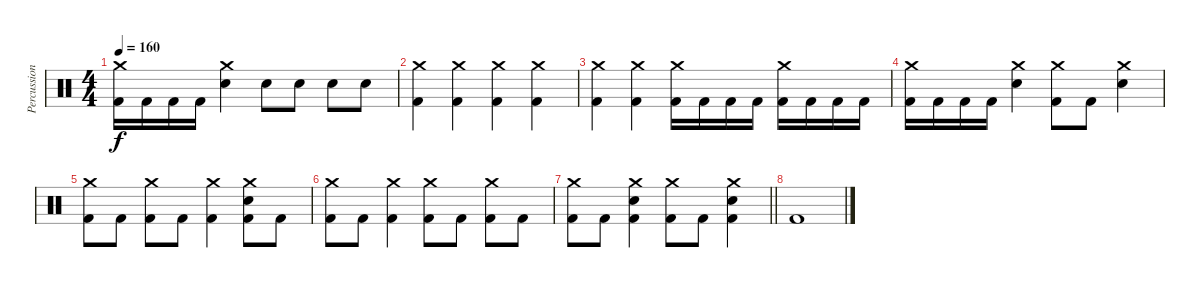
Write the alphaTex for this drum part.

\track ("Percussions" "Percussion") {instrument percussion}
\staff {score}
\articulation defaults
\ts (4 4)
\tempo 160
\clef neutral
\ks c
("Crash medium (hit)" "Kick (hit) 2").16{dy f} "Kick (hit) 2".16 "Kick (hit) 2".16 "Kick (hit) 2".16 ("Crash medium (hit)" "Electric Snare (hit)").4 "Electric Snare (hit)".8 "Electric Snare (hit)".8 "Electric Snare (hit)".8 "Electric Snare (hit)".8 |
("Crash medium (hit)" "Kick (hit) 2").4 ("Crash medium (hit)" "Kick (hit) 2").4 ("Crash medium (hit)" "Kick (hit) 2").4 ("Crash medium (hit)" "Kick (hit) 2").4 |
("Crash medium (hit)" "Kick (hit) 2").4 ("Crash medium (hit)" "Kick (hit) 2").4 ("Crash medium (hit)" "Kick (hit) 2").16 "Kick (hit) 2".16 "Kick (hit) 2".16 "Kick (hit) 2".16 ("Crash medium (hit)" "Kick (hit) 2").16 "Kick (hit) 2".16 "Kick (hit) 2".16 "Kick (hit) 2".16 |
("Crash medium (hit)" "Kick (hit) 2").16 "Kick (hit) 2".16 "Kick (hit) 2".16 "Kick (hit) 2".16 ("Crash medium (hit)" "Electric Snare (hit)").4 ("Crash medium (hit)" "Kick (hit) 2").8 "Kick (hit) 2".8 ("Crash medium (hit)" "Electric Snare (hit)").4 |
("Crash medium (hit)" "Kick (hit) 2").8 "Kick (hit) 2".8 ("Crash medium (hit)" "Kick (hit) 2").8 "Kick (hit) 2".8 ("Crash medium (hit)" "Kick (hit) 2").4 ("Crash medium (hit)" "Electric Snare (hit)" "Kick (hit) 2").8 "Kick (hit) 2".8 |
("Crash medium (hit)" "Kick (hit) 2").8 "Kick (hit) 2".8 ("Crash medium (hit)" "Kick (hit) 2").4 ("Crash medium (hit)" "Kick (hit) 2").8 "Kick (hit) 2".8 ("Crash medium (hit)" "Kick (hit) 2").8 "Kick (hit) 2".8 |
\barLineRight lightlight
("Crash medium (hit)" "Kick (hit) 2").8 "Kick (hit) 2".8 ("Crash medium (hit)" "Electric Snare (hit)" "Kick (hit) 2").4 ("Crash medium (hit)" "Kick (hit) 2").8 "Kick (hit) 2".8 ("Crash medium (hit)" "Electric Snare (hit)" "Kick (hit) 2").4 |
"Kick (hit) 2".1
